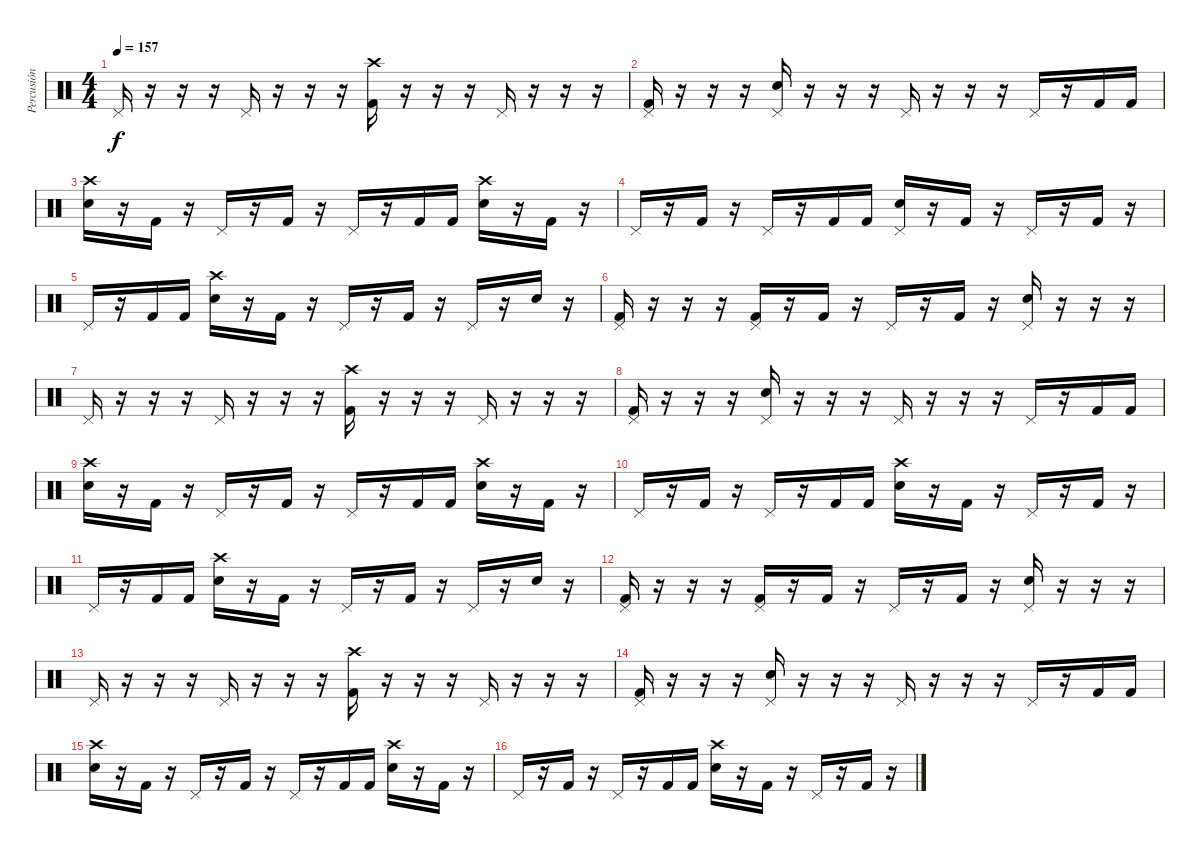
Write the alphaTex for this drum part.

\track ("Percusión" "Percusión") {instrument percussion}
\staff {score}
\articulation defaults
\ts (4 4)
\tempo 157
\clef neutral
\ks c "Pedal Hi-Hat (hit)".16{dy f}
r.16 r.16 r.16 "Pedal Hi-Hat (hit)".16 r.16 r.16 r.16 ("Crash high (hit)" "Kick (hit) 2").16 r.16 r.16 r.16 "Pedal Hi-Hat (hit)".16 r.16 r.16 r.16 |
("Pedal Hi-Hat (hit)" "Kick (hit) 2").16 r.16 r.16 r.16 ("Pedal Hi-Hat (hit)" "Electric Snare (hit)").16 r.16 r.16 r.16 "Pedal Hi-Hat (hit)".16 r.16 r.16 r.16 "Pedal Hi-Hat (hit)".16 r.16 "Kick (hit) 2".16 "Kick (hit) 2".16 |
("Crash high (hit)" "Electric Snare (hit)").16 r.16 "Kick (hit) 2".16 r.16 "Pedal Hi-Hat (hit)".16 r.16 "Kick (hit) 2".16 r.16 "Pedal Hi-Hat (hit)".16 r.16 "Kick (hit) 2".16 "Kick (hit) 2".16 ("Crash high (hit)" "Electric Snare (hit)").16 r.16 "Kick (hit) 2".16 r.16 |
"Pedal Hi-Hat (hit)".16 r.16 "Kick (hit) 2".16 r.16 "Pedal Hi-Hat (hit)".16 r.16 "Kick (hit) 2".16 "Kick (hit) 2".16 ("Pedal Hi-Hat (hit)" "Electric Snare (hit)").16 r.16 "Kick (hit) 2".16 r.16 "Pedal Hi-Hat (hit)".16 r.16 "Kick (hit) 2".16 r.16 |
"Pedal Hi-Hat (hit)".16 r.16 "Kick (hit) 2".16 "Kick (hit) 2".16 ("Crash high (hit)" "Electric Snare (hit)").16 r.16 "Kick (hit) 2".16 r.16 "Pedal Hi-Hat (hit)".16 r.16 "Kick (hit) 2".16 r.16 "Pedal Hi-Hat (hit)".16 r.16 "Electric Snare (hit)".16 r.16 |
("Pedal Hi-Hat (hit)" "Kick (hit) 2").16 r.16 r.16 r.16 ("Pedal Hi-Hat (hit)" "Kick (hit) 2").16 r.16 "Kick (hit) 2".16 r.16 "Pedal Hi-Hat (hit)".16 r.16 "Kick (hit) 2".16 r.16 ("Pedal Hi-Hat (hit)" "Electric Snare (hit)").16 r.16 r.16 r.16 |
"Pedal Hi-Hat (hit)".16 r.16 r.16 r.16 "Pedal Hi-Hat (hit)".16 r.16 r.16 r.16 ("Crash high (hit)" "Kick (hit) 2").16 r.16 r.16 r.16 "Pedal Hi-Hat (hit)".16 r.16 r.16 r.16 |
("Pedal Hi-Hat (hit)" "Kick (hit) 2").16 r.16 r.16 r.16 ("Pedal Hi-Hat (hit)" "Electric Snare (hit)").16 r.16 r.16 r.16 "Pedal Hi-Hat (hit)".16 r.16 r.16 r.16 "Pedal Hi-Hat (hit)".16 r.16 "Kick (hit) 2".16 "Kick (hit) 2".16 |
("Crash high (hit)" "Electric Snare (hit)").16 r.16 "Kick (hit) 2".16 r.16 "Pedal Hi-Hat (hit)".16 r.16 "Kick (hit) 2".16 r.16 "Pedal Hi-Hat (hit)".16 r.16 "Kick (hit) 2".16 "Kick (hit) 2".16 ("Crash high (hit)" "Electric Snare (hit)").16 r.16 "Kick (hit) 2".16 r.16 |
"Pedal Hi-Hat (hit)".16 r.16 "Kick (hit) 2".16 r.16 "Pedal Hi-Hat (hit)".16 r.16 "Kick (hit) 2".16 "Kick (hit) 2".16 ("Crash high (hit)" "Electric Snare (hit)").16 r.16 "Kick (hit) 2".16 r.16 "Pedal Hi-Hat (hit)".16 r.16 "Kick (hit) 2".16 r.16 |
"Pedal Hi-Hat (hit)".16 r.16 "Kick (hit) 2".16 "Kick (hit) 2".16 ("Crash high (hit)" "Electric Snare (hit)").16 r.16 "Kick (hit) 2".16 r.16 "Pedal Hi-Hat (hit)".16 r.16 "Kick (hit) 2".16 r.16 "Pedal Hi-Hat (hit)".16 r.16 "Electric Snare (hit)".16 r.16 |
("Pedal Hi-Hat (hit)" "Kick (hit) 2").16 r.16 r.16 r.16 ("Pedal Hi-Hat (hit)" "Kick (hit) 2").16 r.16 "Kick (hit) 2".16 r.16 "Pedal Hi-Hat (hit)".16 r.16 "Kick (hit) 2".16 r.16 ("Pedal Hi-Hat (hit)" "Electric Snare (hit)").16 r.16 r.16 r.16 |
"Pedal Hi-Hat (hit)".16 r.16 r.16 r.16 "Pedal Hi-Hat (hit)".16 r.16 r.16 r.16 ("Crash high (hit)" "Kick (hit) 2").16 r.16 r.16 r.16 "Pedal Hi-Hat (hit)".16 r.16 r.16 r.16 |
("Pedal Hi-Hat (hit)" "Kick (hit) 2").16 r.16 r.16 r.16 ("Pedal Hi-Hat (hit)" "Electric Snare (hit)").16 r.16 r.16 r.16 "Pedal Hi-Hat (hit)".16 r.16 r.16 r.16 "Pedal Hi-Hat (hit)".16 r.16 "Kick (hit) 2".16 "Kick (hit) 2".16 |
("Crash high (hit)" "Snare (hit) 2").16 r.16 "Kick (hit) 2".16 r.16 "Pedal Hi-Hat (hit)".16 r.16 "Kick (hit) 2".16 r.16 "Pedal Hi-Hat (hit)".16 r.16 "Kick (hit) 2".16 "Kick (hit) 2".16 ("Crash high (hit)" "Electric Snare (hit)").16 r.16 "Kick (hit) 2".16 r.16 |
"Pedal Hi-Hat (hit)".16 r.16 "Kick (hit) 2".16 r.16 "Pedal Hi-Hat (hit)".16 r.16 "Kick (hit) 2".16 "Kick (hit) 2".16 ("Crash high (hit)" "Electric Snare (hit)").16 r.16 "Kick (hit) 2".16 r.16 "Pedal Hi-Hat (hit)".16 r.16 "Kick (hit) 2".16 r.16
